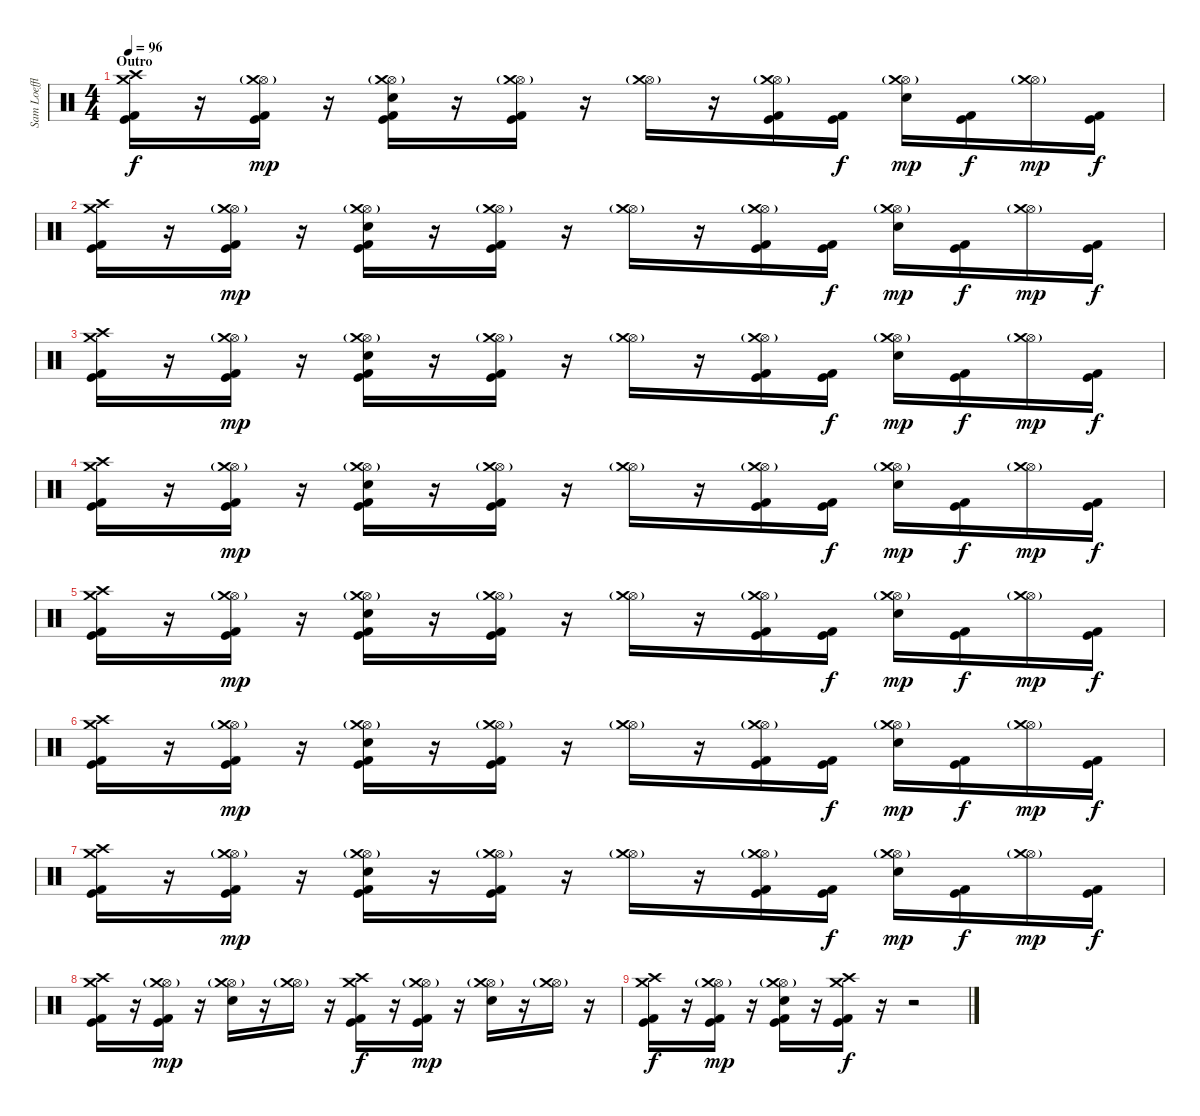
\track ("Sam Loeffler - Drums" "Sam Loeffl") {instrument percussion}
\staff {score}
\articulation defaults
\ts (4 4)
\section ("" "Outro")
\tempo 96
\clef neutral
\ks c
("Crash high (hit)" "Crash medium (hit)" "Kick (hit)" "Kick (hit) 2").16{dy f} r.16 ("Hi-Hat (open)" "Crash medium (hit)"{g} "Kick (hit)" "Kick (hit) 2").16{dy mp} r.16 ("Hi-Hat (open)" "Crash medium (hit)"{g} "Electric Snare (hit)" "Kick (hit)" "Kick (hit) 2").16 r.16 ("Hi-Hat (open)" "Crash medium (hit)"{g} "Kick (hit)" "Kick (hit) 2").16 r.16 ("Hi-Hat (open)" "Crash medium (hit)"{g}).16 r.16 ("Hi-Hat (open)" "Crash medium (hit)"{g} "Kick (hit)" "Kick (hit) 2").16 ("Kick (hit)" "Kick (hit) 2").16{dy f} ("Hi-Hat (open)" "Crash medium (hit)"{g} "Electric Snare (hit)").16{dy mp} ("Kick (hit)" "Kick (hit) 2").16{dy f} ("Hi-Hat (open)" "Crash medium (hit)"{g}).16{dy mp} ("Kick (hit)" "Kick (hit) 2").16{dy f} |
("Crash high (hit)" "Crash medium (hit)" "Kick (hit)" "Kick (hit) 2").16 r.16 ("Hi-Hat (open)" "Crash medium (hit)"{g} "Kick (hit)" "Kick (hit) 2").16{dy mp} r.16 ("Hi-Hat (open)" "Crash medium (hit)"{g} "Electric Snare (hit)" "Kick (hit)" "Kick (hit) 2").16 r.16 ("Hi-Hat (open)" "Crash medium (hit)"{g} "Kick (hit)" "Kick (hit) 2").16 r.16 ("Hi-Hat (open)" "Crash medium (hit)"{g}).16 r.16 ("Hi-Hat (open)" "Crash medium (hit)"{g} "Kick (hit)" "Kick (hit) 2").16 ("Kick (hit)" "Kick (hit) 2").16{dy f} ("Hi-Hat (open)" "Crash medium (hit)"{g} "Electric Snare (hit)").16{dy mp} ("Kick (hit)" "Kick (hit) 2").16{dy f} ("Hi-Hat (open)" "Crash medium (hit)"{g}).16{dy mp} ("Kick (hit)" "Kick (hit) 2").16{dy f} |
("Crash high (hit)" "Crash medium (hit)" "Kick (hit)" "Kick (hit) 2").16 r.16 ("Hi-Hat (open)" "Crash medium (hit)"{g} "Kick (hit)" "Kick (hit) 2").16{dy mp} r.16 ("Hi-Hat (open)" "Crash medium (hit)"{g} "Electric Snare (hit)" "Kick (hit)" "Kick (hit) 2").16 r.16 ("Hi-Hat (open)" "Crash medium (hit)"{g} "Kick (hit)" "Kick (hit) 2").16 r.16 ("Hi-Hat (open)" "Crash medium (hit)"{g}).16 r.16 ("Hi-Hat (open)" "Crash medium (hit)"{g} "Kick (hit)" "Kick (hit) 2").16 ("Kick (hit)" "Kick (hit) 2").16{dy f} ("Hi-Hat (open)" "Crash medium (hit)"{g} "Electric Snare (hit)").16{dy mp} ("Kick (hit)" "Kick (hit) 2").16{dy f} ("Hi-Hat (open)" "Crash medium (hit)"{g}).16{dy mp} ("Kick (hit)" "Kick (hit) 2").16{dy f} |
("Crash high (hit)" "Crash medium (hit)" "Kick (hit)" "Kick (hit) 2").16 r.16 ("Hi-Hat (open)" "Crash medium (hit)"{g} "Kick (hit)" "Kick (hit) 2").16{dy mp} r.16 ("Hi-Hat (open)" "Crash medium (hit)"{g} "Electric Snare (hit)" "Kick (hit)" "Kick (hit) 2").16 r.16 ("Hi-Hat (open)" "Crash medium (hit)"{g} "Kick (hit)" "Kick (hit) 2").16 r.16 ("Hi-Hat (open)" "Crash medium (hit)"{g}).16 r.16 ("Hi-Hat (open)" "Crash medium (hit)"{g} "Kick (hit)" "Kick (hit) 2").16 ("Kick (hit)" "Kick (hit) 2").16{dy f} ("Hi-Hat (open)" "Crash medium (hit)"{g} "Electric Snare (hit)").16{dy mp} ("Kick (hit)" "Kick (hit) 2").16{dy f} ("Hi-Hat (open)" "Crash medium (hit)"{g}).16{dy mp} ("Kick (hit)" "Kick (hit) 2").16{dy f} |
("Crash high (hit)" "Crash medium (hit)" "Kick (hit)" "Kick (hit) 2").16 r.16 ("Hi-Hat (open)" "Crash medium (hit)"{g} "Kick (hit)" "Kick (hit) 2").16{dy mp} r.16 ("Hi-Hat (open)" "Crash medium (hit)"{g} "Electric Snare (hit)" "Kick (hit)" "Kick (hit) 2").16 r.16 ("Hi-Hat (open)" "Crash medium (hit)"{g} "Kick (hit)" "Kick (hit) 2").16 r.16 ("Hi-Hat (open)" "Crash medium (hit)"{g}).16 r.16 ("Hi-Hat (open)" "Crash medium (hit)"{g} "Kick (hit)" "Kick (hit) 2").16 ("Kick (hit)" "Kick (hit) 2").16{dy f} ("Hi-Hat (open)" "Crash medium (hit)"{g} "Electric Snare (hit)").16{dy mp} ("Kick (hit)" "Kick (hit) 2").16{dy f} ("Hi-Hat (open)" "Crash medium (hit)"{g}).16{dy mp} ("Kick (hit)" "Kick (hit) 2").16{dy f} |
("Crash high (hit)" "Crash medium (hit)" "Kick (hit)" "Kick (hit) 2").16 r.16 ("Hi-Hat (open)" "Crash medium (hit)"{g} "Kick (hit)" "Kick (hit) 2").16{dy mp} r.16 ("Hi-Hat (open)" "Crash medium (hit)"{g} "Electric Snare (hit)" "Kick (hit)" "Kick (hit) 2").16 r.16 ("Hi-Hat (open)" "Crash medium (hit)"{g} "Kick (hit)" "Kick (hit) 2").16 r.16 ("Hi-Hat (open)" "Crash medium (hit)"{g}).16 r.16 ("Hi-Hat (open)" "Crash medium (hit)"{g} "Kick (hit)" "Kick (hit) 2").16 ("Kick (hit)" "Kick (hit) 2").16{dy f} ("Hi-Hat (open)" "Crash medium (hit)"{g} "Electric Snare (hit)").16{dy mp} ("Kick (hit)" "Kick (hit) 2").16{dy f} ("Hi-Hat (open)" "Crash medium (hit)"{g}).16{dy mp} ("Kick (hit)" "Kick (hit) 2").16{dy f} |
("Crash high (hit)" "Crash medium (hit)" "Kick (hit)" "Kick (hit) 2").16 r.16 ("Hi-Hat (open)" "Crash medium (hit)"{g} "Kick (hit)" "Kick (hit) 2").16{dy mp} r.16 ("Hi-Hat (open)" "Crash medium (hit)"{g} "Electric Snare (hit)" "Kick (hit)" "Kick (hit) 2").16 r.16 ("Hi-Hat (open)" "Crash medium (hit)"{g} "Kick (hit)" "Kick (hit) 2").16 r.16 ("Hi-Hat (open)" "Crash medium (hit)"{g}).16 r.16 ("Hi-Hat (open)" "Crash medium (hit)"{g} "Kick (hit)" "Kick (hit) 2").16 ("Kick (hit)" "Kick (hit) 2").16{dy f} ("Hi-Hat (open)" "Crash medium (hit)"{g} "Electric Snare (hit)").16{dy mp} ("Kick (hit)" "Kick (hit) 2").16{dy f} ("Hi-Hat (open)" "Crash medium (hit)"{g}).16{dy mp} ("Kick (hit)" "Kick (hit) 2").16{dy f} |
("Crash high (hit)" "Crash medium (hit)" "Kick (hit)" "Kick (hit) 2").16 r.16 ("Hi-Hat (open)" "Crash medium (hit)"{g} "Kick (hit)" "Kick (hit) 2").16{dy mp} r.16 ("Hi-Hat (open)" "Crash medium (hit)"{g} "Electric Snare (hit)").16 r.16 ("Hi-Hat (open)" "Crash medium (hit)"{g}).16 r.16 ("Crash high (hit)" "Crash medium (hit)" "Kick (hit)" "Kick (hit) 2").16{dy f} r.16 ("Hi-Hat (open)" "Crash medium (hit)"{g} "Kick (hit)" "Kick (hit) 2").16{dy mp} r.16 ("Hi-Hat (open)" "Crash medium (hit)"{g} "Electric Snare (hit)").16 r.16 ("Hi-Hat (open)" "Crash medium (hit)"{g}).16 r.16 |
("Crash high (hit)" "Crash medium (hit)" "Kick (hit)" "Kick (hit) 2").16{dy f} r.16 ("Hi-Hat (open)" "Crash medium (hit)"{g} "Kick (hit)" "Kick (hit) 2").16{dy mp} r.16 ("Hi-Hat (open)" "Crash medium (hit)"{g} "Electric Snare (hit)" "Kick (hit)" "Kick (hit) 2").16 r.16 ("Crash high (hit)" "Crash medium (hit)" "Kick (hit)" "Kick (hit) 2").16{dy f} r.16 r.2
